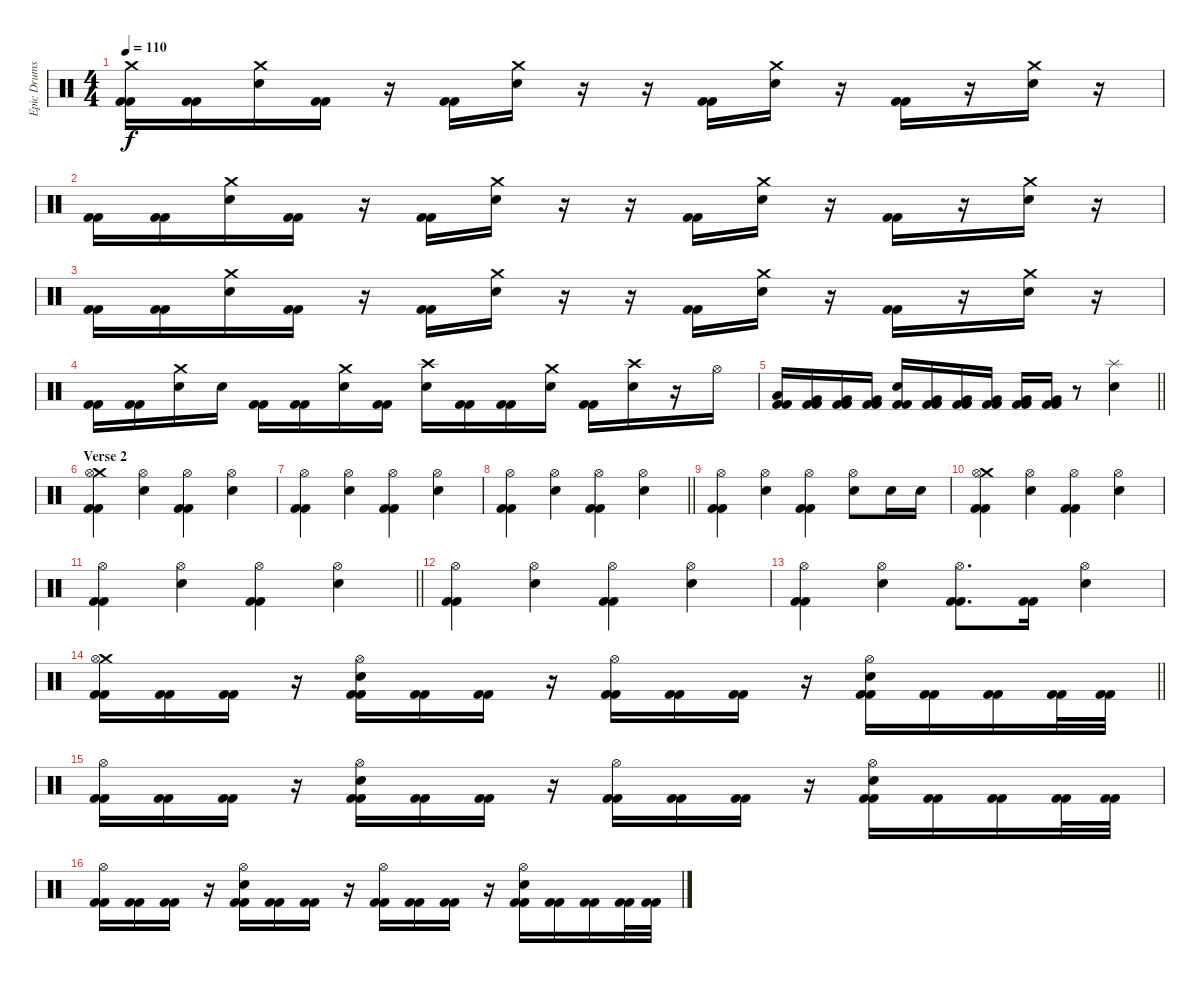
\track ("Epic Drums" "Epic Drums") {instrument percussion}
\staff {score}
\articulation defaults
\ts (4 4)
\tempo 110
\clef neutral
\ks c
("Crash medium (hit)" "Kick (hit) 2" "Kick (hit) 2").16{dy f} ("Kick (hit) 2" "Kick (hit) 2").16 ("Crash medium (hit)" "Electric Snare (hit)").16 ("Kick (hit) 2" "Kick (hit) 2").16 r.16 ("Kick (hit) 2" "Kick (hit) 2").16 ("Crash medium (hit)" "Electric Snare (hit)").16 r.16 r.16 ("Kick (hit) 2" "Kick (hit) 2").16 ("Crash medium (hit)" "Electric Snare (hit)").16 r.16 ("Kick (hit) 2" "Kick (hit) 2").16 r.16 ("Crash medium (hit)" "Electric Snare (hit)").16 r.16 |
("Kick (hit) 2" "Kick (hit) 2").16 ("Kick (hit) 2" "Kick (hit) 2").16 ("Crash medium (hit)" "Electric Snare (hit)").16 ("Kick (hit) 2" "Kick (hit) 2").16 r.16 ("Kick (hit) 2" "Kick (hit) 2").16 ("Crash medium (hit)" "Electric Snare (hit)").16 r.16 r.16 ("Kick (hit) 2" "Kick (hit) 2").16 ("Crash medium (hit)" "Electric Snare (hit)").16 r.16 ("Kick (hit) 2" "Kick (hit) 2").16 r.16 ("Crash medium (hit)" "Electric Snare (hit)").16 r.16 |
("Kick (hit) 2" "Kick (hit) 2").16 ("Kick (hit) 2" "Kick (hit) 2").16 ("Crash medium (hit)" "Electric Snare (hit)").16 ("Kick (hit) 2" "Kick (hit) 2").16 r.16 ("Kick (hit) 2" "Kick (hit) 2").16 ("Crash medium (hit)" "Electric Snare (hit)").16 r.16 r.16 ("Kick (hit) 2" "Kick (hit) 2").16 ("Crash medium (hit)" "Electric Snare (hit)").16 r.16 ("Kick (hit) 2" "Kick (hit) 2").16 r.16 ("Crash medium (hit)" "Electric Snare (hit)").16 r.16 |
("Kick (hit) 2" "Kick (hit) 2").16 ("Kick (hit) 2" "Kick (hit) 2").16 ("Crash medium (hit)" "Electric Snare (hit)").16 "Electric Snare (hit)".16 ("Kick (hit) 2" "Kick (hit) 2").16 ("Kick (hit) 2" "Kick (hit) 2").16 ("Crash medium (hit)" "Electric Snare (hit)").16 ("Kick (hit) 2" "Kick (hit) 2").16 ("Crash high (hit)" "Electric Snare (hit)").16 ("Kick (hit) 2" "Kick (hit) 2").16 ("Kick (hit) 2" "Kick (hit) 2").16 ("Crash medium (hit)" "Electric Snare (hit)").16 ("Kick (hit) 2" "Kick (hit) 2").16 ("Crash high (hit)" "Electric Snare (hit)").16 r.16 "Hi-Hat (open)".16 |
\barLineRight lightlight
("Low Tom (hit)" "Kick (hit) 2" "Kick (hit) 2").16 ("Very Low Tom (hit)" "Kick (hit) 2" "Kick (hit) 2").16 ("Very Low Tom (hit)" "Kick (hit) 2" "Kick (hit) 2").16 ("Very Low Tom (hit)" "Kick (hit) 2" "Kick (hit) 2").16 ("Electric Snare (hit)" "Kick (hit) 2" "Kick (hit) 2").16 ("Very Low Tom (hit)" "Kick (hit) 2" "Kick (hit) 2").16 ("Very Low Tom (hit)" "Kick (hit) 2" "Kick (hit) 2").16 ("Very Low Tom (hit)" "Kick (hit) 2" "Kick (hit) 2").16 ("Very Low Tom (hit)" "Kick (hit) 2" "Kick (hit) 2").16 ("Very Low Tom (hit)" "Kick (hit) 2" "Kick (hit) 2").16 r.8 ("Splash (hit)" "Electric Snare (hit)").4 |
\section ("" "Verse 2")
("Crash medium (hit)" "Hi-Hat (open)" "Kick (hit) 2" "Kick (hit) 2").4 ("Hi-Hat (open)" "Electric Snare (hit)").4 ("Hi-Hat (open)" "Kick (hit) 2" "Kick (hit) 2").4 ("Hi-Hat (open)" "Electric Snare (hit)").4 |
("Hi-Hat (open)" "Kick (hit) 2" "Kick (hit) 2").4 ("Hi-Hat (open)" "Electric Snare (hit)").4 ("Hi-Hat (open)" "Kick (hit) 2" "Kick (hit) 2").4 ("Hi-Hat (open)" "Electric Snare (hit)").4 |
\barLineRight lightlight
("Hi-Hat (open)" "Kick (hit) 2" "Kick (hit) 2").4 ("Hi-Hat (open)" "Electric Snare (hit)").4 ("Hi-Hat (open)" "Kick (hit) 2" "Kick (hit) 2").4 ("Hi-Hat (open)" "Electric Snare (hit)").4 |
("Hi-Hat (open)" "Kick (hit) 2" "Kick (hit) 2").4 ("Hi-Hat (open)" "Electric Snare (hit)").4 ("Hi-Hat (open)" "Kick (hit) 2" "Kick (hit) 2").4 ("Hi-Hat (open)" "Electric Snare (hit)").8 "Electric Snare (hit)".16 "Electric Snare (hit)".16 |
("Crash medium (hit)" "Hi-Hat (open)" "Kick (hit) 2" "Kick (hit) 2").4 ("Hi-Hat (open)" "Electric Snare (hit)").4 ("Hi-Hat (open)" "Kick (hit) 2" "Kick (hit) 2").4 ("Hi-Hat (open)" "Electric Snare (hit)").4 |
\barLineRight lightlight
("Hi-Hat (open)" "Kick (hit) 2" "Kick (hit) 2").4 ("Hi-Hat (open)" "Electric Snare (hit)").4 ("Hi-Hat (open)" "Kick (hit) 2" "Kick (hit) 2").4 ("Hi-Hat (open)" "Electric Snare (hit)").4 |
("Hi-Hat (open)" "Kick (hit) 2" "Kick (hit) 2").4 ("Hi-Hat (open)" "Electric Snare (hit)").4 ("Hi-Hat (open)" "Kick (hit) 2" "Kick (hit) 2").4 ("Hi-Hat (open)" "Electric Snare (hit)").4 |
("Hi-Hat (open)" "Kick (hit) 2" "Kick (hit) 2").4 ("Hi-Hat (open)" "Electric Snare (hit)").4 ("Hi-Hat (open)" "Kick (hit) 2" "Kick (hit) 2").8{d} ("Kick (hit) 2" "Kick (hit) 2").16 ("Hi-Hat (open)" "Electric Snare (hit)").4 |
\barLineRight lightlight
("Crash medium (hit)" "Hi-Hat (open)" "Kick (hit) 2" "Kick (hit) 2").16 ("Kick (hit) 2" "Kick (hit) 2").16 ("Kick (hit) 2" "Kick (hit) 2").16 r.16 ("Hi-Hat (open)" "Electric Snare (hit)" "Kick (hit) 2" "Kick (hit) 2").16 ("Kick (hit) 2" "Kick (hit) 2").16 ("Kick (hit) 2" "Kick (hit) 2").16 r.16 ("Hi-Hat (open)" "Kick (hit) 2" "Kick (hit) 2").16 ("Kick (hit) 2" "Kick (hit) 2").16 ("Kick (hit) 2" "Kick (hit) 2").16 r.16 ("Hi-Hat (open)" "Electric Snare (hit)" "Kick (hit) 2" "Kick (hit) 2").16 ("Kick (hit) 2" "Kick (hit) 2").16 ("Kick (hit) 2" "Kick (hit) 2").16 ("Kick (hit) 2" "Kick (hit) 2").32 ("Kick (hit) 2" "Kick (hit) 2").32 |
("Hi-Hat (open)" "Kick (hit) 2" "Kick (hit) 2").16 ("Kick (hit) 2" "Kick (hit) 2").16 ("Kick (hit) 2" "Kick (hit) 2").16 r.16 ("Hi-Hat (open)" "Electric Snare (hit)" "Kick (hit) 2" "Kick (hit) 2").16 ("Kick (hit) 2" "Kick (hit) 2").16 ("Kick (hit) 2" "Kick (hit) 2").16 r.16 ("Hi-Hat (open)" "Kick (hit) 2" "Kick (hit) 2").16 ("Kick (hit) 2" "Kick (hit) 2").16 ("Kick (hit) 2" "Kick (hit) 2").16 r.16 ("Hi-Hat (open)" "Electric Snare (hit)" "Kick (hit) 2" "Kick (hit) 2").16 ("Kick (hit) 2" "Kick (hit) 2").16 ("Kick (hit) 2" "Kick (hit) 2").16 ("Kick (hit) 2" "Kick (hit) 2").32 ("Kick (hit) 2" "Kick (hit) 2").32 |
("Hi-Hat (open)" "Kick (hit) 2" "Kick (hit) 2").16 ("Kick (hit) 2" "Kick (hit) 2").16 ("Kick (hit) 2" "Kick (hit) 2").16 r.16 ("Hi-Hat (open)" "Electric Snare (hit)" "Kick (hit) 2" "Kick (hit) 2").16 ("Kick (hit) 2" "Kick (hit) 2").16 ("Kick (hit) 2" "Kick (hit) 2").16 r.16 ("Hi-Hat (open)" "Kick (hit) 2" "Kick (hit) 2").16 ("Kick (hit) 2" "Kick (hit) 2").16 ("Kick (hit) 2" "Kick (hit) 2").16 r.16 ("Hi-Hat (open)" "Electric Snare (hit)" "Kick (hit) 2" "Kick (hit) 2").16 ("Kick (hit) 2" "Kick (hit) 2").16 ("Kick (hit) 2" "Kick (hit) 2").16 ("Kick (hit) 2" "Kick (hit) 2").32 ("Kick (hit) 2" "Kick (hit) 2").32
